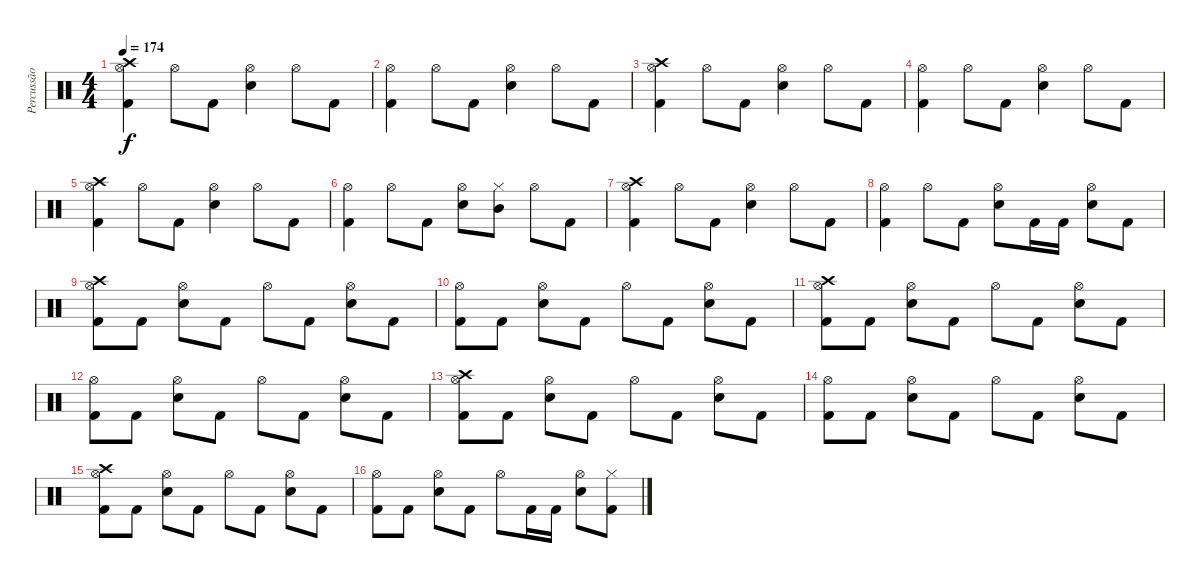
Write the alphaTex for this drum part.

\track ("Percussão" "Percussão") {instrument percussion}
\staff {score}
\articulation defaults
\ts (4 4)
\tempo 174
\clef neutral
\ks c
("Crash high (hit)" "Hi-Hat (open)" "Kick (hit) 2").4{dy f} "Hi-Hat (open)".8 "Kick (hit) 2".8 ("Hi-Hat (open)" "Electric Snare (hit)").4 "Hi-Hat (open)".8 "Kick (hit) 2".8 |
("Hi-Hat (open)" "Kick (hit) 2").4 "Hi-Hat (open)".8 "Kick (hit) 2".8 ("Hi-Hat (open)" "Electric Snare (hit)").4 "Hi-Hat (open)".8 "Kick (hit) 2".8 |
("Crash high (hit)" "Hi-Hat (open)" "Kick (hit) 2").4 "Hi-Hat (open)".8 "Kick (hit) 2".8 ("Hi-Hat (open)" "Electric Snare (hit)").4 "Hi-Hat (open)".8 "Kick (hit) 2".8 |
("Hi-Hat (open)" "Kick (hit) 2").4 "Hi-Hat (open)".8 "Kick (hit) 2".8 ("Hi-Hat (open)" "Electric Snare (hit)").4 "Hi-Hat (open)".8 "Kick (hit) 2".8 |
("Crash high (hit)" "Hi-Hat (open)" "Kick (hit) 2").4 "Hi-Hat (open)".8 "Kick (hit) 2".8 ("Hi-Hat (open)" "Electric Snare (hit)").4 "Hi-Hat (open)".8 "Kick (hit) 2".8 |
("Hi-Hat (open)" "Kick (hit) 2").4 "Hi-Hat (open)".8 "Kick (hit) 2".8 ("Hi-Hat (open)" "Electric Snare (hit)").8 ("Hi-Hat (closed)" "Mid Tom (hit)").8 "Hi-Hat (open)".8 "Kick (hit) 2".8 |
("Crash high (hit)" "Hi-Hat (open)" "Kick (hit) 2").4 "Hi-Hat (open)".8 "Kick (hit) 2".8 ("Hi-Hat (open)" "Electric Snare (hit)").4 "Hi-Hat (open)".8 "Kick (hit) 2".8 |
("Hi-Hat (open)" "Kick (hit) 2").4 "Hi-Hat (open)".8 "Kick (hit) 2".8 ("Hi-Hat (open)" "Electric Snare (hit)").8 "Kick (hit) 2".16 "Kick (hit) 2".16 ("Hi-Hat (open)" "Electric Snare (hit)").8 "Kick (hit) 2".8 |
("Crash high (hit)" "Hi-Hat (open)" "Kick (hit) 2").8 "Kick (hit) 2".8 ("Hi-Hat (open)" "Electric Snare (hit)").8 "Kick (hit) 2".8 "Hi-Hat (open)".8 "Kick (hit) 2".8 ("Hi-Hat (open)" "Electric Snare (hit)").8 "Kick (hit) 2".8 |
("Hi-Hat (open)" "Kick (hit) 2").8 "Kick (hit) 2".8 ("Hi-Hat (open)" "Electric Snare (hit)").8 "Kick (hit) 2".8 "Hi-Hat (open)".8 "Kick (hit) 2".8 ("Hi-Hat (open)" "Electric Snare (hit)").8 "Kick (hit) 2".8 |
("Crash high (hit)" "Hi-Hat (open)" "Kick (hit) 2").8 "Kick (hit) 2".8 ("Hi-Hat (open)" "Electric Snare (hit)").8 "Kick (hit) 2".8 "Hi-Hat (open)".8 "Kick (hit) 2".8 ("Hi-Hat (open)" "Electric Snare (hit)").8 "Kick (hit) 2".8 |
("Hi-Hat (open)" "Kick (hit) 2").8 "Kick (hit) 2".8 ("Hi-Hat (open)" "Electric Snare (hit)").8 "Kick (hit) 2".8 "Hi-Hat (open)".8 "Kick (hit) 2".8 ("Hi-Hat (open)" "Electric Snare (hit)").8 "Kick (hit) 2".8 |
("Crash high (hit)" "Hi-Hat (open)" "Kick (hit) 2").8 "Kick (hit) 2".8 ("Hi-Hat (open)" "Electric Snare (hit)").8 "Kick (hit) 2".8 "Hi-Hat (open)".8 "Kick (hit) 2".8 ("Hi-Hat (open)" "Electric Snare (hit)").8 "Kick (hit) 2".8 |
("Hi-Hat (open)" "Kick (hit) 2").8 "Kick (hit) 2".8 ("Hi-Hat (open)" "Electric Snare (hit)").8 "Kick (hit) 2".8 "Hi-Hat (open)".8 "Kick (hit) 2".8 ("Hi-Hat (open)" "Electric Snare (hit)").8 "Kick (hit) 2".8 |
("Crash high (hit)" "Hi-Hat (open)" "Kick (hit) 2").8 "Kick (hit) 2".8 ("Hi-Hat (open)" "Electric Snare (hit)").8 "Kick (hit) 2".8 "Hi-Hat (open)".8 "Kick (hit) 2".8 ("Hi-Hat (open)" "Electric Snare (hit)").8 "Kick (hit) 2".8 |
("Hi-Hat (open)" "Kick (hit) 2").8 "Kick (hit) 2".8 ("Hi-Hat (open)" "Electric Snare (hit)").8 "Kick (hit) 2".8 "Hi-Hat (open)".8 "Kick (hit) 2".16 "Kick (hit) 2".16 ("Hi-Hat (open)" "Electric Snare (hit)").8 ("Hi-Hat (closed)" "Kick (hit) 2").8
